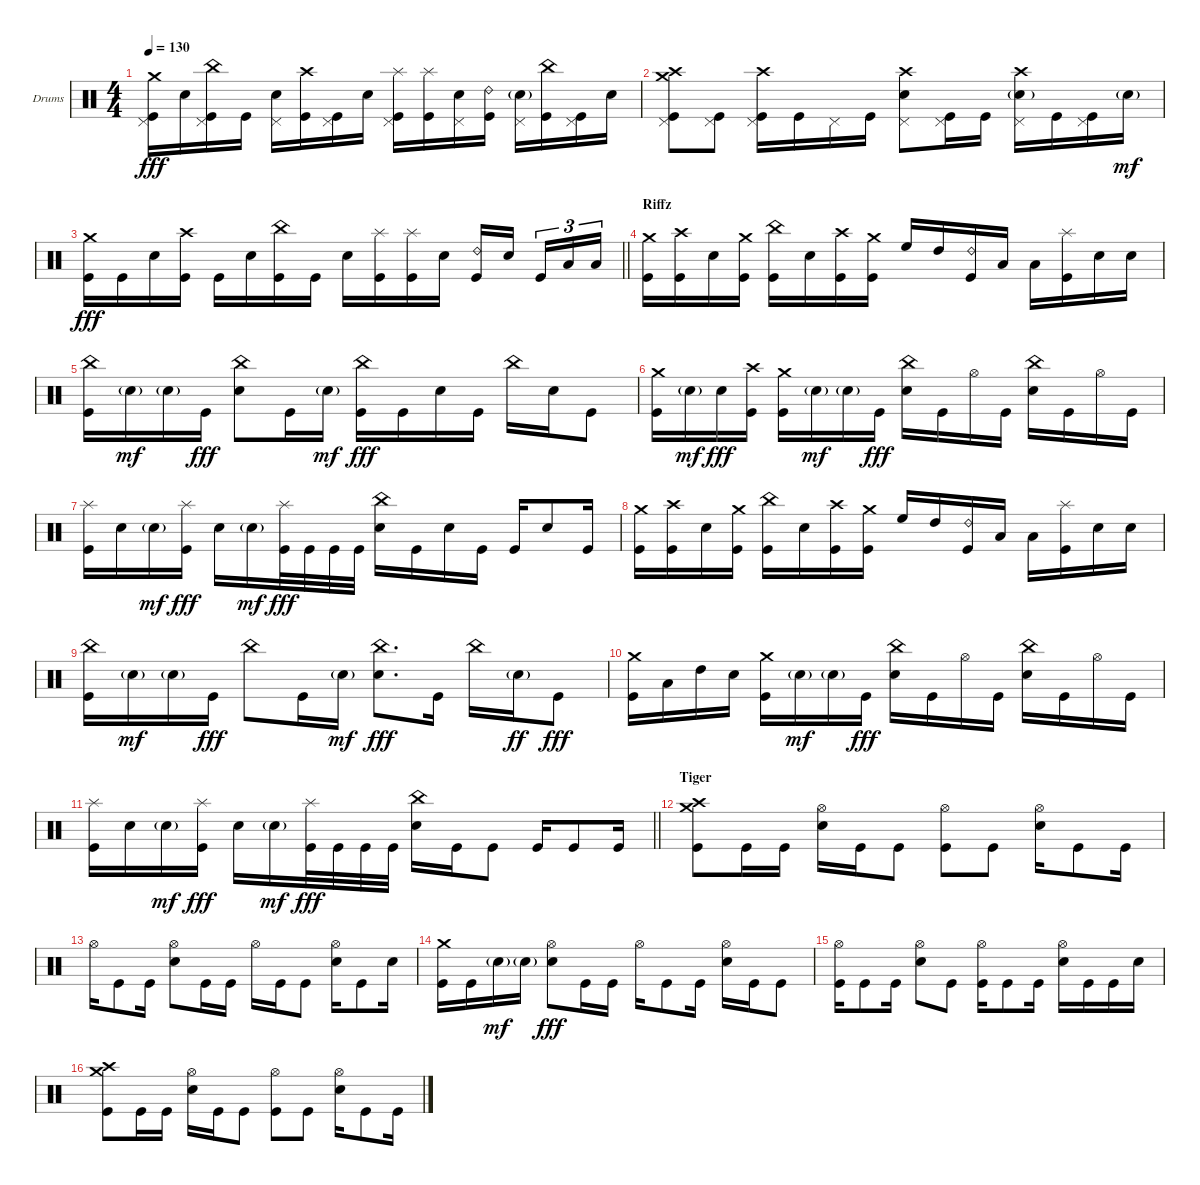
\bracketExtendMode groupsimilarinstruments
\firstSystemTrackNameOrientation horizontal
\otherSystemsTrackNameOrientation horizontal
\track ("Drumkit" "Drums") {instrument percussion}
\staff {score}
\articulation defaults
\ts (4 4)
\tempo 130
\clef neutral
\ks c
("Crash medium (hit)" "Pedal Hi-Hat (hit)" "Kick (hit)").16{dy fff} "Snare (hit) 2".16 ("China (hit)" "Pedal Hi-Hat (hit)" "Kick (hit)").16 "Kick (hit)".16 ("Snare (hit) 2" "Pedal Hi-Hat (hit)").16 ("Crash high (hit)" "Kick (hit)").16 ("Pedal Hi-Hat (hit)" "Kick (hit)").16 "Snare (hit) 2".16 ("Splash (hit)" "Pedal Hi-Hat (hit)" "Kick (hit)").16 ("Splash (hit)" "Kick (hit)").16 ("Snare (hit) 2" "Pedal Hi-Hat (hit)").16 ("Ride (bell) 2" "Kick (hit)").16 ("Snare (hit) 2"{g} "Pedal Hi-Hat (hit)").16 ("China (hit)" "Kick (hit)").16 ("Pedal Hi-Hat (hit)" "Kick (hit)").16 "Snare (hit) 2".16 |
("Crash medium (hit)" "Crash high (hit)" "Pedal Hi-Hat (hit)" "Kick (hit)").8 ("Pedal Hi-Hat (hit)" "Kick (hit)").8 ("Crash high (hit)" "Pedal Hi-Hat (hit)" "Kick (hit)").16 "Kick (hit)".16 "Pedal Hi-Hat (hit)".16 "Kick (hit)".16 ("Crash high (hit)" "Snare (hit) 2" "Pedal Hi-Hat (hit)").8 ("Pedal Hi-Hat (hit)" "Kick (hit)").16 "Kick (hit)".16 ("Crash high (hit)" "Snare (hit) 2"{g} "Pedal Hi-Hat (hit)").16 "Kick (hit)".16 ("Pedal Hi-Hat (hit)" "Kick (hit)").16 "Snare (hit) 2"{g}.16{dy mf} |
\barLineRight lightlight
("Crash medium (hit)" "Kick (hit)").16{dy fff} "Kick (hit)".16 "Snare (hit) 2".16 ("Crash high (hit)" "Kick (hit)").16 "Kick (hit)".16 "Snare (hit) 2".16 ("China (hit)" "Kick (hit)").16 "Kick (hit)".16 "Snare (hit) 2".16 ("Splash (hit)" "Kick (hit)").16 ("Splash (hit)" "Kick (hit)").16 "Snare (hit) 2".16 ("Ride (bell) 2" "Kick (hit)").16 "Snare (hit) 2".16 "Kick (hit)".16{tu (3 2)} "Low Tom (hit)".16{tu (3 2)} "Low Tom (hit)".16{tu (3 2)} |
\section ("" "Riffz")
("Crash medium (hit)" "Kick (hit)").16 ("Crash high (hit)" "Kick (hit)").16 "Snare (hit) 2".16 ("Crash medium (hit)" "Kick (hit)").16 ("China (hit)" "Kick (hit)").16 "Snare (hit) 2".16 ("Crash high (hit)" "Kick (hit)").16 ("Crash medium (hit)" "Kick (hit)").16 "High Floor Tom (hit)".16 "High Tom (hit)".16 ("Ride (bell) 2" "Kick (hit)").16 "Low Tom (hit)".16 "Low Tom (hit)".16 ("Splash (hit)" "Kick (hit)").16 "Snare (hit) 2".16 "Snare (hit) 2".16 |
("China (hit)" "Kick (hit)").16 "Snare (hit) 2"{g}.16{dy mf} "Snare (hit) 2"{g}.16 "Kick (hit)".16{dy fff} ("China (hit)" "Snare (hit) 2").8 "Kick (hit)".16 "Snare (hit) 2"{g}.16{dy mf} ("China (hit)" "Kick (hit)").16{dy fff} "Kick (hit)".16 "Snare (hit) 2".16 "Kick (hit)".16 "China (hit)".16 "Snare (hit) 2".16 "Kick (hit)".8 |
("Crash medium (hit)" "Kick (hit)").16 "Snare (hit) 2"{g}.16{dy mf} "Snare (hit) 2".16{dy fff} ("Crash high (hit)" "Kick (hit)").16 ("Crash medium (hit)" "Kick (hit)").16 "Snare (hit) 2"{g}.16{dy mf} "Snare (hit) 2"{g}.16 "Kick (hit)".16{dy fff} ("China (hit)" "Snare (hit) 2").16 "Kick (hit)".16 "Hi-Hat (open)".16 "Kick (hit)".16 ("China (hit)" "Snare (hit) 2").16 "Kick (hit)".16 "Hi-Hat (open)".16 "Kick (hit)".16 |
("Splash (hit)" "Kick (hit)").16 "Snare (hit) 2".16 "Snare (hit) 2"{g}.16{dy mf} ("Splash (hit)" "Kick (hit)").16{dy fff} "Snare (hit) 2".16 "Snare (hit) 2"{g}.16{dy mf} ("Splash (hit)" "Kick (hit)").32{dy fff} "Kick (hit)".32 "Kick (hit)".32 "Kick (hit)".32 ("China (hit)" "Snare (hit) 2").16 "Kick (hit)".16 "Snare (hit) 2".16 "Kick (hit)".16 "Kick (hit)".16 "Snare (hit) 2".8 "Kick (hit)".16 |
("Crash medium (hit)" "Kick (hit)").16 ("Crash high (hit)" "Kick (hit)").16 "Snare (hit) 2".16 ("Crash medium (hit)" "Kick (hit)").16 ("China (hit)" "Kick (hit)").16 "Snare (hit) 2".16 ("Crash high (hit)" "Kick (hit)").16 ("Crash medium (hit)" "Kick (hit)").16 "High Floor Tom (hit)".16 "High Tom (hit)".16 ("Ride (bell) 2" "Kick (hit)").16 "Low Tom (hit)".16 "Low Tom (hit)".16 ("Splash (hit)" "Kick (hit)").16 "Snare (hit) 2".16 "Snare (hit) 2".16 |
("China (hit)" "Kick (hit)").16 "Snare (hit) 2"{g}.16{dy mf} "Snare (hit) 2"{g}.16 "Kick (hit)".16{dy fff} "China (hit)".8 "Kick (hit)".16 "Snare (hit) 2"{g}.16{dy mf} ("China (hit)" "Snare (hit) 2").8{d dy fff} "Kick (hit)".16 "China (hit)".16 "Snare (hit) 2"{g}.16{dy ff} "Kick (hit)".8{dy fff} |
("Crash medium (hit)" "Kick (hit)").16 "Low Tom (hit)".16 "High Tom (hit)".16 "Snare (hit) 2".16 ("Crash medium (hit)" "Kick (hit)").16 "Snare (hit) 2"{g}.16{dy mf} "Snare (hit) 2"{g}.16 "Kick (hit)".16{dy fff} ("China (hit)" "Snare (hit) 2").16 "Kick (hit)".16 "Hi-Hat (open)".16 "Kick (hit)".16 ("China (hit)" "Snare (hit) 2").16 "Kick (hit)".16 "Hi-Hat (open)".16 "Kick (hit)".16 |
\barLineRight lightlight
("Splash (hit)" "Kick (hit)").16 "Snare (hit) 2".16 "Snare (hit) 2"{g}.16{dy mf} ("Splash (hit)" "Kick (hit)").16{dy fff} "Snare (hit) 2".16 "Snare (hit) 2"{g}.16{dy mf} ("Splash (hit)" "Kick (hit)").32{dy fff} "Kick (hit)".32 "Kick (hit)".32 "Kick (hit)".32 ("China (hit)" "Snare (hit) 2").16 "Kick (hit)".16 "Kick (hit)".8 "Kick (hit)".16 "Kick (hit)".8 "Kick (hit)".16 |
\section ("" "Tiger")
("Crash medium (hit)" "Crash high (hit)" "Kick (hit)").8 "Kick (hit)".16 "Kick (hit)".16 ("Hi-Hat (open)" "Snare (hit) 2").16 "Kick (hit)".16 "Kick (hit)".8 ("Hi-Hat (open)" "Kick (hit)").8 "Kick (hit)".8 ("Hi-Hat (open)" "Snare (hit) 2").16 "Kick (hit)".8 "Kick (hit)".16 |
"Hi-Hat (open)".16 "Kick (hit)".8 "Kick (hit)".16 ("Hi-Hat (open)" "Snare (hit) 2").8 "Kick (hit)".16 "Kick (hit)".16 "Hi-Hat (open)".16 "Kick (hit)".16 "Kick (hit)".8 ("Hi-Hat (open)" "Snare (hit) 2").16 "Kick (hit)".8 "Snare (hit) 2".16 |
("Crash medium (hit)" "Kick (hit)").16 "Kick (hit)".16 "Snare (hit) 2"{g}.16{dy mf} "Snare (hit) 2"{g}.16 ("Hi-Hat (open)" "Snare (hit) 2").8{dy fff} "Kick (hit)".16 "Kick (hit)".16 "Hi-Hat (open)".16 "Kick (hit)".8 "Kick (hit)".16 ("Hi-Hat (open)" "Snare (hit) 2").16 "Kick (hit)".16 "Kick (hit)".8 |
("Hi-Hat (open)" "Kick (hit)").16 "Kick (hit)".8 "Kick (hit)".16 ("Hi-Hat (open)" "Snare (hit) 2").8 "Kick (hit)".8 ("Hi-Hat (open)" "Kick (hit)").16 "Kick (hit)".8 "Kick (hit)".16 ("Hi-Hat (open)" "Snare (hit) 2").16 "Kick (hit)".16 "Kick (hit)".16 "Snare (hit) 2".16 |
("Crash medium (hit)" "Crash high (hit)" "Kick (hit)").8 "Kick (hit)".16 "Kick (hit)".16 ("Hi-Hat (open)" "Snare (hit) 2").16 "Kick (hit)".16 "Kick (hit)".8 ("Hi-Hat (open)" "Kick (hit)").8 "Kick (hit)".8 ("Hi-Hat (open)" "Snare (hit) 2").16 "Kick (hit)".8 "Kick (hit)".16
